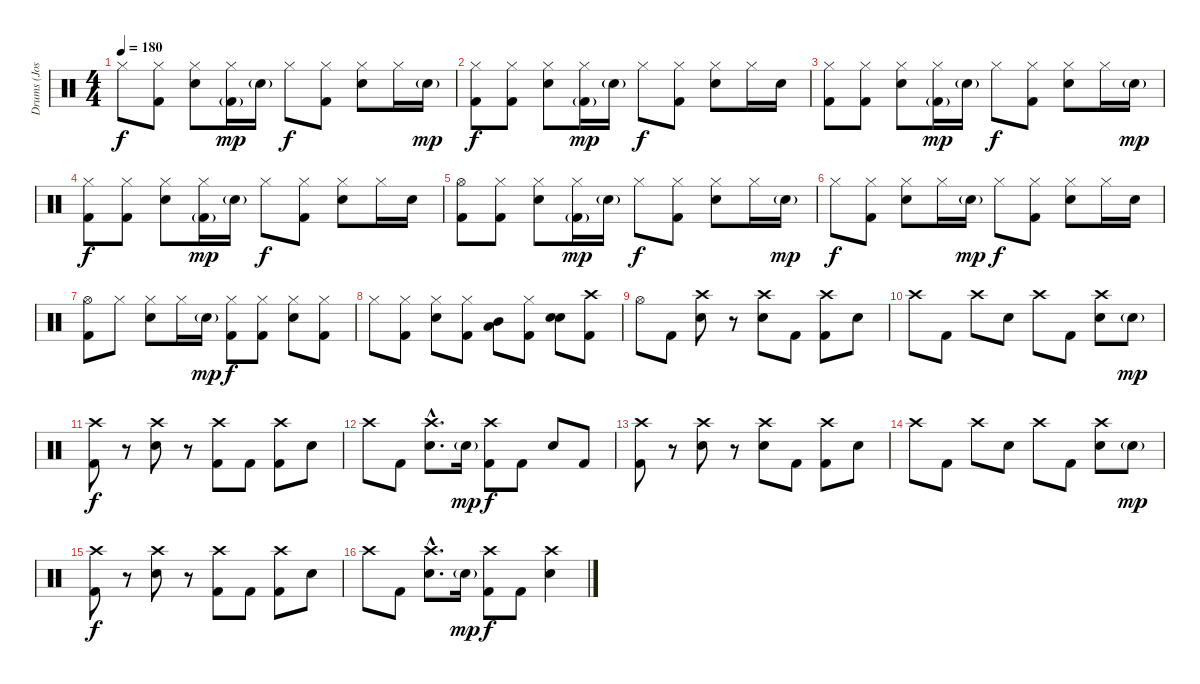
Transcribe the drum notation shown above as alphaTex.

\track ("Drums (Jose Pasilas II)" "Drums (Jos") {instrument percussion}
\staff {score}
\articulation defaults
\ts (4 4)
\tempo 180
\clef neutral
\ks c "Hi-Hat (closed)".8{dy f}
("Hi-Hat (closed)" "Kick (hit) 2").8 ("Hi-Hat (closed)" "Snare (hit) 2").8 ("Hi-Hat (closed)" "Kick (hit) 2"{g}).16{dy mp} "Snare (hit) 2"{g}.16 "Hi-Hat (closed)".8{dy f} ("Hi-Hat (closed)" "Kick (hit) 2").8 ("Snare (hit) 2" "Hi-Hat (closed)").8 "Hi-Hat (closed)".16 "Snare (hit) 2"{g}.16{dy mp} |
("Kick (hit) 2" "Hi-Hat (closed)").8{dy f} ("Hi-Hat (closed)" "Kick (hit) 2").8 ("Hi-Hat (closed)" "Snare (hit) 2").8 ("Hi-Hat (closed)" "Kick (hit) 2"{g}).16{dy mp} "Snare (hit) 2"{g}.16 "Hi-Hat (closed)".8{dy f} ("Hi-Hat (closed)" "Kick (hit) 2").8 ("Snare (hit) 2" "Hi-Hat (closed)").8 "Hi-Hat (closed)".16 "Snare (hit) 2".16 |
("Kick (hit) 2" "Hi-Hat (closed)").8 ("Hi-Hat (closed)" "Kick (hit) 2").8 ("Hi-Hat (closed)" "Snare (hit) 2").8 ("Hi-Hat (closed)" "Kick (hit) 2"{g}).16{dy mp} "Snare (hit) 2"{g}.16 "Hi-Hat (closed)".8{dy f} ("Hi-Hat (closed)" "Kick (hit) 2").8 ("Snare (hit) 2" "Hi-Hat (closed)").8 "Hi-Hat (closed)".16 "Snare (hit) 2"{g}.16{dy mp} |
("Kick (hit) 2" "Hi-Hat (closed)").8{dy f} ("Hi-Hat (closed)" "Kick (hit) 2").8 ("Hi-Hat (closed)" "Snare (hit) 2").8 ("Hi-Hat (closed)" "Kick (hit) 2"{g}).16{dy mp} "Snare (hit) 2"{g}.16 "Hi-Hat (closed)".8{dy f} ("Hi-Hat (closed)" "Kick (hit) 2").8 ("Snare (hit) 2" "Hi-Hat (closed)").8 "Hi-Hat (closed)".16 "Snare (hit) 2".16 |
("Kick (hit) 2" "Hi-Hat (open)").8 ("Hi-Hat (closed)" "Kick (hit) 2").8 ("Hi-Hat (closed)" "Snare (hit) 2").8 ("Hi-Hat (closed)" "Kick (hit) 2"{g}).16{dy mp} "Snare (hit) 2"{g}.16 "Hi-Hat (closed)".8{dy f} ("Hi-Hat (closed)" "Kick (hit) 2").8 ("Snare (hit) 2" "Hi-Hat (closed)").8 "Hi-Hat (closed)".16 "Snare (hit) 2"{g}.16{dy mp} |
"Hi-Hat (closed)".8{dy f} ("Kick (hit) 2" "Hi-Hat (closed)").8 ("Snare (hit) 2" "Hi-Hat (closed)").8 "Hi-Hat (closed)".16 "Snare (hit) 2"{g}.16{dy mp} "Hi-Hat (closed)".8{dy f} ("Hi-Hat (closed)" "Kick (hit) 2").8 ("Snare (hit) 2" "Hi-Hat (closed)").8 "Hi-Hat (closed)".16 "Snare (hit) 2".16 |
("Hi-Hat (open)" "Kick (hit) 2").8 "Hi-Hat (closed)".8 ("Hi-Hat (closed)" "Snare (hit) 2").8 "Hi-Hat (closed)".16 "Snare (hit) 2"{g}.16{dy mp} ("Kick (hit) 2" "Hi-Hat (closed)").8{dy f} ("Hi-Hat (closed)" "Kick (hit) 2").8 ("Snare (hit) 2" "Hi-Hat (closed)").8 ("Kick (hit) 2" "Hi-Hat (closed)").8 |
"Hi-Hat (closed)".8 ("Kick (hit) 2" "Hi-Hat (closed)").8 ("Snare (hit) 2" "Hi-Hat (closed)").8 ("Kick (hit) 2" "Hi-Hat (closed)").8 ("Mid Tom (hit)" "Low Tom (hit)").8{bu 240} ("Hi-Hat (closed)" "Kick (hit) 2").8 ("Snare (hit) 2" "Snare (hit) 2").8{bd 240} ("Crash high (hit)" "Kick (hit) 2").8 |
"Hi-Hat (open)".8 "Kick (hit) 2".8 ("Snare (hit) 2" "Crash high (hit)").8 r.8 ("Snare (hit) 2" "Crash high (hit)").8 "Kick (hit) 2".8 ("Crash high (hit)" "Kick (hit) 2").8 "Snare (hit) 2".8 |
"Crash high (hit)".8 "Kick (hit) 2".8 "Crash high (hit)".8 "Snare (hit) 2".8 "Crash high (hit)".8 "Kick (hit) 2".8 ("Crash high (hit)" "Snare (hit) 2").8 "Snare (hit) 2"{g}.8{dy mp} |
("Kick (hit) 2" "Crash high (hit)").8{dy f} r.8 ("Crash high (hit)" "Snare (hit) 2").8 r.8 ("Kick (hit) 2" "Crash high (hit)").8 "Kick (hit) 2".8 ("Crash high (hit)" "Kick (hit) 2").8 "Snare (hit) 2".8 |
"Crash high (hit)".8 "Kick (hit) 2".8 ("Snare (hit) 2"{hac} "Crash high (hit)"{hac}).8{d} "Snare (hit) 2"{g}.16{dy mp} ("Kick (hit) 2" "Crash high (hit)").8{dy f} "Kick (hit) 2".8 "Snare (hit) 2".8 "Kick (hit) 2".8 |
("Crash high (hit)" "Kick (hit) 2").8 r.8 ("Snare (hit) 2" "Crash high (hit)").8 r.8 ("Snare (hit) 2" "Crash high (hit)").8 "Kick (hit) 2".8 ("Crash high (hit)" "Kick (hit) 2").8 "Snare (hit) 2".8 |
"Crash high (hit)".8 "Kick (hit) 2".8 "Crash high (hit)".8 "Snare (hit) 2".8 "Crash high (hit)".8 "Kick (hit) 2".8 ("Crash high (hit)" "Snare (hit) 2").8 "Snare (hit) 2"{g}.8{dy mp} |
("Kick (hit) 2" "Crash high (hit)").8{dy f} r.8 ("Crash high (hit)" "Snare (hit) 2").8 r.8 ("Kick (hit) 2" "Crash high (hit)").8 "Kick (hit) 2".8 ("Crash high (hit)" "Kick (hit) 2").8 "Snare (hit) 2".8 |
"Crash high (hit)".8 "Kick (hit) 2".8 ("Snare (hit) 2"{hac} "Crash high (hit)"{hac}).8{d} "Snare (hit) 2"{g}.16{dy mp} ("Kick (hit) 2" "Crash high (hit)").8{dy f} "Kick (hit) 2".8 ("Snare (hit) 2" "Crash high (hit)").4
